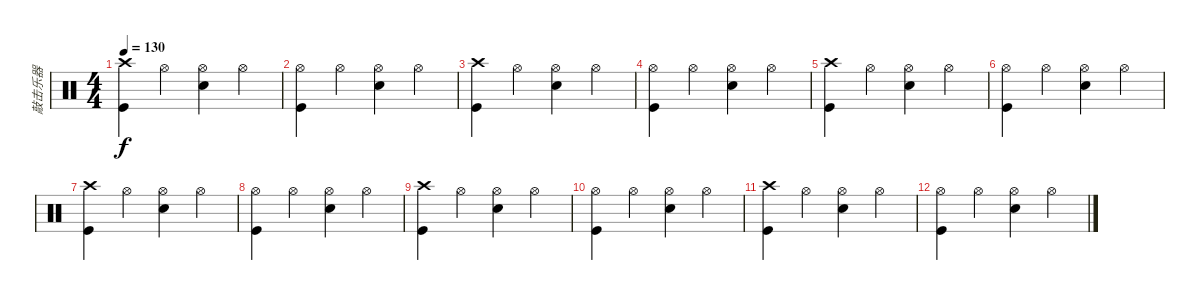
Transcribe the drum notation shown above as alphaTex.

\track ("敲击乐器" "敲击乐器") {instrument percussion}
\staff {score}
\articulation defaults
\ts (4 4)
\tempo 130
\clef neutral
\ks c
("Crash high (hit)" "Kick (hit)").4{dy f} "Hi-Hat (open)".4 ("Hi-Hat (open)" "Electric Snare (hit)").4 "Hi-Hat (open)".4 |
("Hi-Hat (open)" "Kick (hit)").4 "Hi-Hat (open)".4 ("Hi-Hat (open)" "Electric Snare (hit)").4 "Hi-Hat (open)".4 |
("Crash high (hit)" "Kick (hit)").4 "Hi-Hat (open)".4 ("Hi-Hat (open)" "Electric Snare (hit)").4 "Hi-Hat (open)".4 |
("Hi-Hat (open)" "Kick (hit)").4 "Hi-Hat (open)".4 ("Hi-Hat (open)" "Electric Snare (hit)").4 "Hi-Hat (open)".4 |
("Crash high (hit)" "Kick (hit)").4 "Hi-Hat (open)".4 ("Hi-Hat (open)" "Electric Snare (hit)").4 "Hi-Hat (open)".4 |
("Hi-Hat (open)" "Kick (hit)").4 "Hi-Hat (open)".4 ("Hi-Hat (open)" "Electric Snare (hit)").4 "Hi-Hat (open)".4 |
("Crash high (hit)" "Kick (hit)").4 "Hi-Hat (open)".4 ("Hi-Hat (open)" "Electric Snare (hit)").4 "Hi-Hat (open)".4 |
("Hi-Hat (open)" "Kick (hit)").4 "Hi-Hat (open)".4 ("Hi-Hat (open)" "Electric Snare (hit)").4 "Hi-Hat (open)".4 |
("Crash high (hit)" "Kick (hit)").4 "Hi-Hat (open)".4 ("Hi-Hat (open)" "Electric Snare (hit)").4 "Hi-Hat (open)".4 |
("Hi-Hat (open)" "Kick (hit)").4 "Hi-Hat (open)".4 ("Hi-Hat (open)" "Electric Snare (hit)").4 "Hi-Hat (open)".4 |
("Crash high (hit)" "Kick (hit)").4 "Hi-Hat (open)".4 ("Hi-Hat (open)" "Electric Snare (hit)").4 "Hi-Hat (open)".4 |
("Hi-Hat (open)" "Kick (hit)").4 "Hi-Hat (open)".4 ("Hi-Hat (open)" "Electric Snare (hit)").4 "Hi-Hat (open)".4
